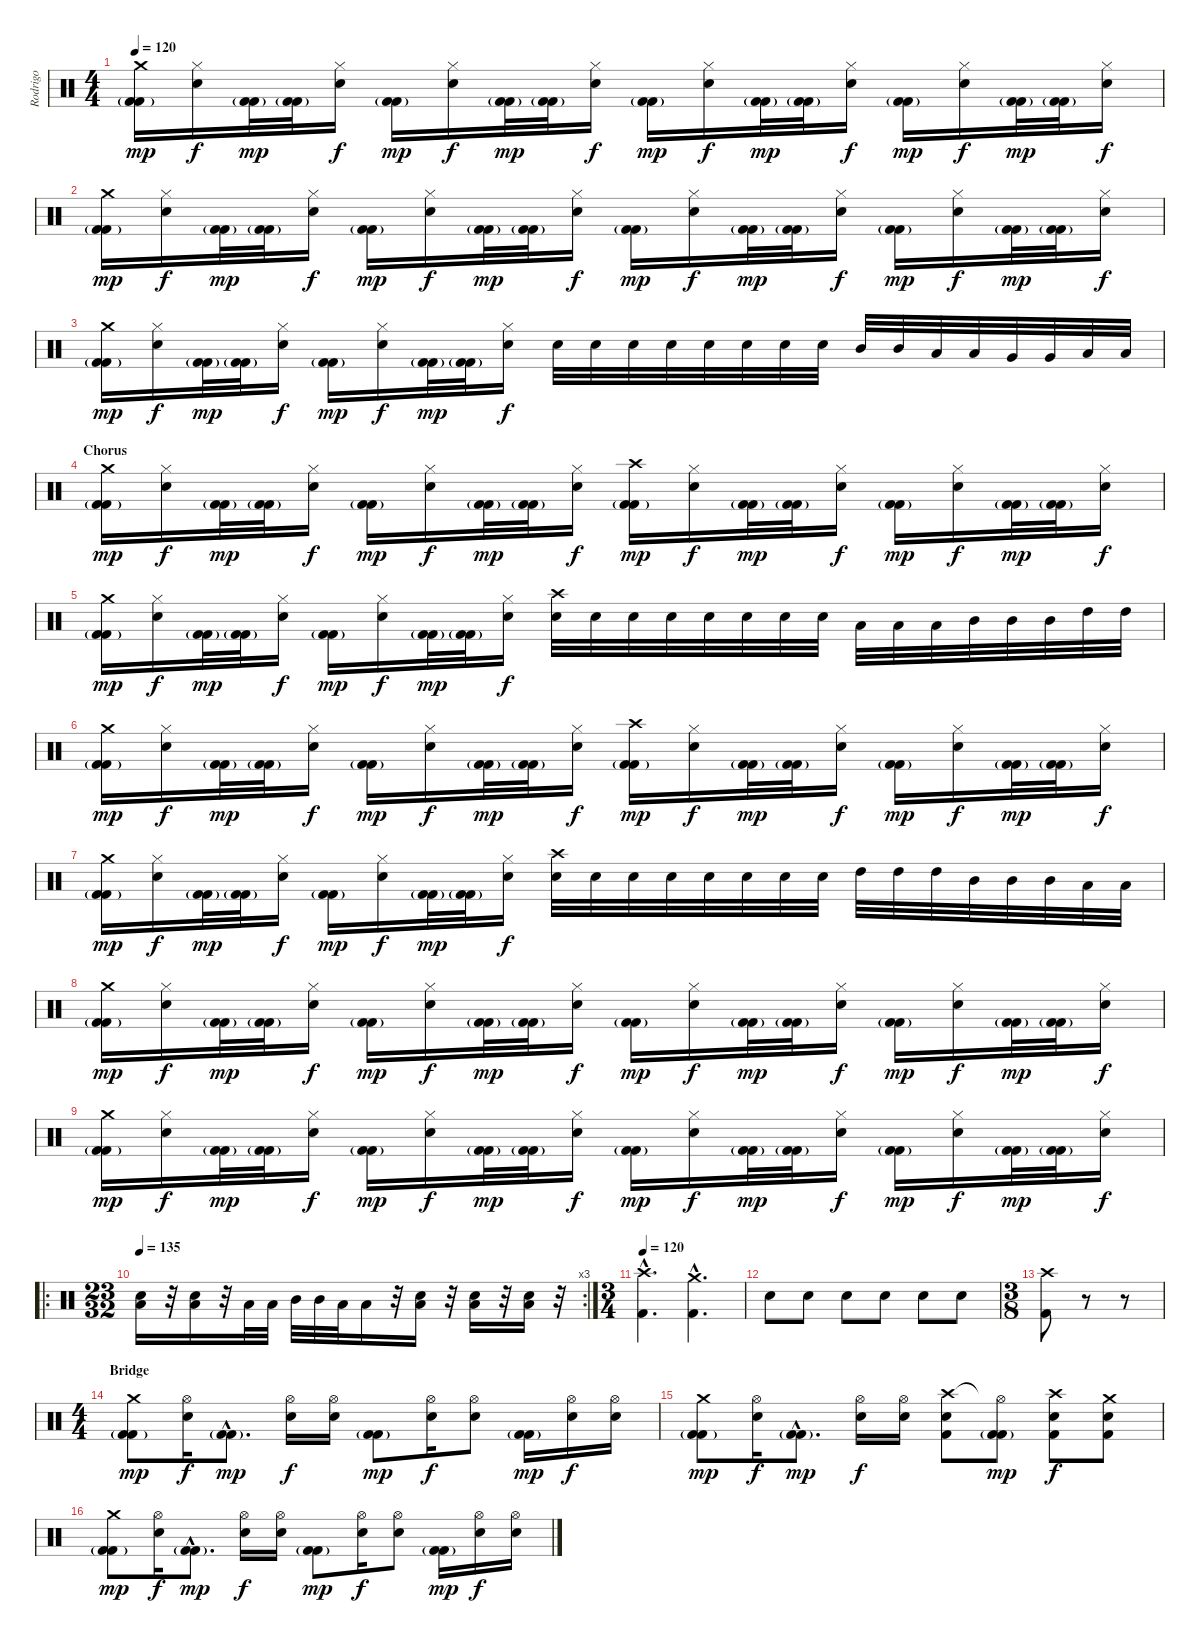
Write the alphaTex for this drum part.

\track ("Rodrigo" "Rodrigo") {instrument percussion}
\staff {score}
\articulation defaults
\ts (4 4)
\tempo 120
\clef neutral
\ks c
("Crash medium (hit)" "Kick (hit) 2"{g} "Kick (hit) 2").16{dy mp} ("Hi-Hat (closed)" "Snare (hit) 2").16{dy f} ("Kick (hit) 2"{g} "Kick (hit) 2").32{dy mp} ("Kick (hit) 2"{g} "Kick (hit) 2").32 ("Hi-Hat (closed)" "Snare (hit) 2").16{dy f} ("Kick (hit) 2"{g} "Kick (hit) 2").16{dy mp} ("Hi-Hat (closed)" "Snare (hit) 2").16{dy f} ("Kick (hit) 2"{g} "Kick (hit) 2").32{dy mp} ("Kick (hit) 2"{g} "Kick (hit) 2").32 ("Hi-Hat (closed)" "Snare (hit) 2").16{dy f} ("Kick (hit) 2"{g} "Kick (hit) 2").16{dy mp} ("Hi-Hat (closed)" "Snare (hit) 2").16{dy f} ("Kick (hit) 2"{g} "Kick (hit) 2").32{dy mp} ("Kick (hit) 2"{g} "Kick (hit) 2").32 ("Hi-Hat (closed)" "Snare (hit) 2").16{dy f} ("Kick (hit) 2"{g} "Kick (hit) 2").16{dy mp} ("Hi-Hat (closed)" "Snare (hit) 2").16{dy f} ("Kick (hit) 2"{g} "Kick (hit) 2").32{dy mp} ("Kick (hit) 2"{g} "Kick (hit) 2").32 ("Hi-Hat (closed)" "Snare (hit) 2").16{dy f} |
("Crash medium (hit)" "Kick (hit) 2"{g} "Kick (hit) 2").16{dy mp} ("Hi-Hat (closed)" "Snare (hit) 2").16{dy f} ("Kick (hit) 2"{g} "Kick (hit) 2").32{dy mp} ("Kick (hit) 2"{g} "Kick (hit) 2").32 ("Hi-Hat (closed)" "Snare (hit) 2").16{dy f} ("Kick (hit) 2"{g} "Kick (hit) 2").16{dy mp} ("Hi-Hat (closed)" "Snare (hit) 2").16{dy f} ("Kick (hit) 2"{g} "Kick (hit) 2").32{dy mp} ("Kick (hit) 2"{g} "Kick (hit) 2").32 ("Hi-Hat (closed)" "Snare (hit) 2").16{dy f} ("Kick (hit) 2"{g} "Kick (hit) 2").16{dy mp} ("Hi-Hat (closed)" "Snare (hit) 2").16{dy f} ("Kick (hit) 2"{g} "Kick (hit) 2").32{dy mp} ("Kick (hit) 2"{g} "Kick (hit) 2").32 ("Hi-Hat (closed)" "Snare (hit) 2").16{dy f} ("Kick (hit) 2"{g} "Kick (hit) 2").16{dy mp} ("Hi-Hat (closed)" "Snare (hit) 2").16{dy f} ("Kick (hit) 2"{g} "Kick (hit) 2").32{dy mp} ("Kick (hit) 2"{g} "Kick (hit) 2").32 ("Hi-Hat (closed)" "Snare (hit) 2").16{dy f} |
("Crash medium (hit)" "Kick (hit) 2"{g} "Kick (hit) 2").16{dy mp} ("Hi-Hat (closed)" "Snare (hit) 2").16{dy f} ("Kick (hit) 2"{g} "Kick (hit) 2").32{dy mp} ("Kick (hit) 2"{g} "Kick (hit) 2").32 ("Hi-Hat (closed)" "Snare (hit) 2").16{dy f} ("Kick (hit) 2"{g} "Kick (hit) 2").16{dy mp} ("Hi-Hat (closed)" "Snare (hit) 2").16{dy f} ("Kick (hit) 2"{g} "Kick (hit) 2").32{dy mp} ("Kick (hit) 2"{g} "Kick (hit) 2").32 ("Hi-Hat (closed)" "Snare (hit) 2").16{dy f} "Snare (hit) 2".32 "Snare (hit) 2".32 "Snare (hit) 2".32 "Snare (hit) 2".32 "Snare (hit) 2".32 "Snare (hit) 2".32 "Snare (hit) 2".32 "Snare (hit) 2".32 "Mid Tom (hit)".32 "Mid Tom (hit)".32 "Low Tom (hit)".32 "Low Tom (hit)".32 "Very Low Tom (hit)".32 "Very Low Tom (hit)".32 "Low Floor Tom (hit)".32 "Low Floor Tom (hit)".32 |
\section ("" "Chorus")
("Crash medium (hit)" "Kick (hit) 2"{g} "Kick (hit) 2").16{dy mp} ("Hi-Hat (closed)" "Snare (hit) 2").16{dy f} ("Kick (hit) 2"{g} "Kick (hit) 2").32{dy mp} ("Kick (hit) 2"{g} "Kick (hit) 2").32 ("Hi-Hat (closed)" "Snare (hit) 2").16{dy f} ("Kick (hit) 2"{g} "Kick (hit) 2").16{dy mp} ("Hi-Hat (closed)" "Snare (hit) 2").16{dy f} ("Kick (hit) 2"{g} "Kick (hit) 2").32{dy mp} ("Kick (hit) 2"{g} "Kick (hit) 2").32 ("Hi-Hat (closed)" "Snare (hit) 2").16{dy f} ("Crash high (hit)" "Kick (hit) 2"{g} "Kick (hit) 2").16{dy mp} ("Hi-Hat (closed)" "Snare (hit) 2").16{dy f} ("Kick (hit) 2"{g} "Kick (hit) 2").32{dy mp} ("Kick (hit) 2"{g} "Kick (hit) 2").32 ("Hi-Hat (closed)" "Snare (hit) 2").16{dy f} ("Kick (hit) 2"{g} "Kick (hit) 2").16{dy mp} ("Hi-Hat (closed)" "Snare (hit) 2").16{dy f} ("Kick (hit) 2"{g} "Kick (hit) 2").32{dy mp} ("Kick (hit) 2"{g} "Kick (hit) 2").32 ("Hi-Hat (closed)" "Snare (hit) 2").16{dy f} |
("Crash medium (hit)" "Kick (hit) 2"{g} "Kick (hit) 2").16{dy mp} ("Hi-Hat (closed)" "Snare (hit) 2").16{dy f} ("Kick (hit) 2"{g} "Kick (hit) 2").32{dy mp} ("Kick (hit) 2"{g} "Kick (hit) 2").32 ("Hi-Hat (closed)" "Snare (hit) 2").16{dy f} ("Kick (hit) 2"{g} "Kick (hit) 2").16{dy mp} ("Hi-Hat (closed)" "Snare (hit) 2").16{dy f} ("Kick (hit) 2"{g} "Kick (hit) 2").32{dy mp} ("Kick (hit) 2"{g} "Kick (hit) 2").32 ("Hi-Hat (closed)" "Snare (hit) 2").16{dy f} ("Crash high (hit)" "Snare (hit) 2").32 "Snare (hit) 2".32 "Snare (hit) 2".32 "Snare (hit) 2".32 "Snare (hit) 2".32 "Snare (hit) 2".32 "Snare (hit) 2".32 "Snare (hit) 2".32 "Low Tom (hit)".32 "Low Tom (hit)".32 "Low Tom (hit)".32 "Mid Tom (hit)".32 "Mid Tom (hit)".32 "Mid Tom (hit)".32 "High Tom (hit)".32 "High Tom (hit)".32 |
("Crash medium (hit)" "Kick (hit) 2"{g} "Kick (hit) 2").16{dy mp} ("Hi-Hat (closed)" "Snare (hit) 2").16{dy f} ("Kick (hit) 2"{g} "Kick (hit) 2").32{dy mp} ("Kick (hit) 2"{g} "Kick (hit) 2").32 ("Hi-Hat (closed)" "Snare (hit) 2").16{dy f} ("Kick (hit) 2"{g} "Kick (hit) 2").16{dy mp} ("Hi-Hat (closed)" "Snare (hit) 2").16{dy f} ("Kick (hit) 2"{g} "Kick (hit) 2").32{dy mp} ("Kick (hit) 2"{g} "Kick (hit) 2").32 ("Hi-Hat (closed)" "Snare (hit) 2").16{dy f} ("Crash high (hit)" "Kick (hit) 2"{g} "Kick (hit) 2").16{dy mp} ("Hi-Hat (closed)" "Snare (hit) 2").16{dy f} ("Kick (hit) 2"{g} "Kick (hit) 2").32{dy mp} ("Kick (hit) 2"{g} "Kick (hit) 2").32 ("Hi-Hat (closed)" "Snare (hit) 2").16{dy f} ("Kick (hit) 2"{g} "Kick (hit) 2").16{dy mp} ("Hi-Hat (closed)" "Snare (hit) 2").16{dy f} ("Kick (hit) 2"{g} "Kick (hit) 2").32{dy mp} ("Kick (hit) 2"{g} "Kick (hit) 2").32 ("Hi-Hat (closed)" "Snare (hit) 2").16{dy f} |
("Crash medium (hit)" "Kick (hit) 2"{g} "Kick (hit) 2").16{dy mp} ("Hi-Hat (closed)" "Snare (hit) 2").16{dy f} ("Kick (hit) 2"{g} "Kick (hit) 2").32{dy mp} ("Kick (hit) 2"{g} "Kick (hit) 2").32 ("Hi-Hat (closed)" "Snare (hit) 2").16{dy f} ("Kick (hit) 2"{g} "Kick (hit) 2").16{dy mp} ("Hi-Hat (closed)" "Snare (hit) 2").16{dy f} ("Kick (hit) 2"{g} "Kick (hit) 2").32{dy mp} ("Kick (hit) 2"{g} "Kick (hit) 2").32 ("Hi-Hat (closed)" "Snare (hit) 2").16{dy f} ("Crash high (hit)" "Snare (hit) 2").32 "Snare (hit) 2".32 "Snare (hit) 2".32 "Snare (hit) 2".32 "Snare (hit) 2".32 "Snare (hit) 2".32 "Snare (hit) 2".32 "Snare (hit) 2".32 "High Tom (hit)".32 "High Tom (hit)".32 "High Tom (hit)".32 "Mid Tom (hit)".32 "Mid Tom (hit)".32 "Mid Tom (hit)".32 "Low Tom (hit)".32 "Low Tom (hit)".32 |
("Crash medium (hit)" "Kick (hit) 2"{g} "Kick (hit) 2").16{dy mp} ("Hi-Hat (closed)" "Snare (hit) 2").16{dy f} ("Kick (hit) 2"{g} "Kick (hit) 2").32{dy mp} ("Kick (hit) 2"{g} "Kick (hit) 2").32 ("Hi-Hat (closed)" "Snare (hit) 2").16{dy f} ("Kick (hit) 2"{g} "Kick (hit) 2").16{dy mp} ("Hi-Hat (closed)" "Snare (hit) 2").16{dy f} ("Kick (hit) 2"{g} "Kick (hit) 2").32{dy mp} ("Kick (hit) 2"{g} "Kick (hit) 2").32 ("Hi-Hat (closed)" "Snare (hit) 2").16{dy f} ("Kick (hit) 2"{g} "Kick (hit) 2").16{dy mp} ("Hi-Hat (closed)" "Snare (hit) 2").16{dy f} ("Kick (hit) 2"{g} "Kick (hit) 2").32{dy mp} ("Kick (hit) 2"{g} "Kick (hit) 2").32 ("Hi-Hat (closed)" "Snare (hit) 2").16{dy f} ("Kick (hit) 2"{g} "Kick (hit) 2").16{dy mp} ("Hi-Hat (closed)" "Snare (hit) 2").16{dy f} ("Kick (hit) 2"{g} "Kick (hit) 2").32{dy mp} ("Kick (hit) 2"{g} "Kick (hit) 2").32 ("Hi-Hat (closed)" "Snare (hit) 2").16{dy f} |
("Crash medium (hit)" "Kick (hit) 2"{g} "Kick (hit) 2").16{dy mp} ("Hi-Hat (closed)" "Snare (hit) 2").16{dy f} ("Kick (hit) 2"{g} "Kick (hit) 2").32{dy mp} ("Kick (hit) 2"{g} "Kick (hit) 2").32 ("Hi-Hat (closed)" "Snare (hit) 2").16{dy f} ("Kick (hit) 2"{g} "Kick (hit) 2").16{dy mp} ("Hi-Hat (closed)" "Snare (hit) 2").16{dy f} ("Kick (hit) 2"{g} "Kick (hit) 2").32{dy mp} ("Kick (hit) 2"{g} "Kick (hit) 2").32 ("Hi-Hat (closed)" "Snare (hit) 2").16{dy f} ("Kick (hit) 2"{g} "Kick (hit) 2").16{dy mp} ("Hi-Hat (closed)" "Snare (hit) 2").16{dy f} ("Kick (hit) 2"{g} "Kick (hit) 2").32{dy mp} ("Kick (hit) 2"{g} "Kick (hit) 2").32 ("Hi-Hat (closed)" "Snare (hit) 2").16{dy f} ("Kick (hit) 2"{g} "Kick (hit) 2").16{dy mp} ("Hi-Hat (closed)" "Snare (hit) 2").16{dy f} ("Kick (hit) 2"{g} "Kick (hit) 2").32{dy mp} ("Kick (hit) 2"{g} "Kick (hit) 2").32 ("Hi-Hat (closed)" "Snare (hit) 2").16{dy f} |
\ro
\rc 3
\ts (23 32)
\tempo 135
("Low Floor Tom (hit)" "Snare (hit) 2").16 r.32 ("Low Floor Tom (hit)" "Snare (hit) 2").16 r.32 "Low Tom (hit)".32 "Low Tom (hit)".32 "Mid Tom (hit)".32 "Mid Tom (hit)".32 "Low Tom (hit)".32 "Low Tom (hit)".16 r.32 ("Low Floor Tom (hit)" "Snare (hit) 2").16 r.32 ("Low Floor Tom (hit)" "Snare (hit) 2").16 r.32 ("Low Floor Tom (hit)" "Snare (hit) 2").16 r.32 |
\ts (3 4)
\tempo 120
("Kick (hit) 2"{hac} "Crash high (hit)"{hac}).4{d} ("Kick (hit) 2"{hac} "Crash medium (hit)"{hac}).4{d} |
"Snare (hit) 2".8 "Snare (hit) 2".8 "Snare (hit) 2".8 "Snare (hit) 2".8 "Snare (hit) 2".8 "Snare (hit) 2".8 |
\ts (3 8)
("Kick (hit) 2" "Crash high (hit)").8 r.8 r.8 |
\ts (4 4)
\section ("" "Bridge")
("Crash medium (hit)" "Kick (hit) 2"{g} "Kick (hit) 2").8{dy mp} ("Hi-Hat (open)" "Snare (hit) 2").16{dy f} ("Kick (hit) 2"{g hac} "Kick (hit) 2"{hac}).8{d dy mp} ("Hi-Hat (open)" "Snare (hit) 2").16{dy f} ("Hi-Hat (open)" "Snare (hit) 2").16 ("Kick (hit) 2"{g} "Kick (hit) 2").8{dy mp} ("Hi-Hat (open)" "Snare (hit) 2").16{dy f} ("Hi-Hat (open)" "Snare (hit) 2").8 ("Kick (hit) 2"{g} "Kick (hit) 2").16{dy mp} ("Hi-Hat (open)" "Snare (hit) 2").16{dy f} ("Hi-Hat (open)" "Snare (hit) 2").16 |
("Crash medium (hit)" "Kick (hit) 2"{g} "Kick (hit) 2").8{dy mp} ("Hi-Hat (open)" "Snare (hit) 2").16{dy f} ("Kick (hit) 2"{g hac} "Kick (hit) 2"{hac}).8{d dy mp} ("Hi-Hat (open)" "Snare (hit) 2").16{dy f} ("Hi-Hat (open)" "Snare (hit) 2").16 ("Crash high (hit)" "Snare (hit) 2" "Kick (hit) 2").8 ("Hi-Hat (open)"{t} "Kick (hit) 2"{g} "Kick (hit) 2").8{dy mp} ("Crash high (hit)" "Snare (hit) 2" "Kick (hit) 2").8{dy f} ("Crash medium (hit)" "Snare (hit) 2" "Kick (hit) 2").8 |
("Crash medium (hit)" "Kick (hit) 2"{g} "Kick (hit) 2").8{dy mp} ("Hi-Hat (open)" "Snare (hit) 2").16{dy f} ("Kick (hit) 2"{g hac} "Kick (hit) 2"{hac}).8{d dy mp} ("Hi-Hat (open)" "Snare (hit) 2").16{dy f} ("Hi-Hat (open)" "Snare (hit) 2").16 ("Kick (hit) 2"{g} "Kick (hit) 2").8{dy mp} ("Hi-Hat (open)" "Snare (hit) 2").16{dy f} ("Hi-Hat (open)" "Snare (hit) 2").8 ("Kick (hit) 2"{g} "Kick (hit) 2").16{dy mp} ("Hi-Hat (open)" "Snare (hit) 2").16{dy f} ("Hi-Hat (open)" "Snare (hit) 2").16
